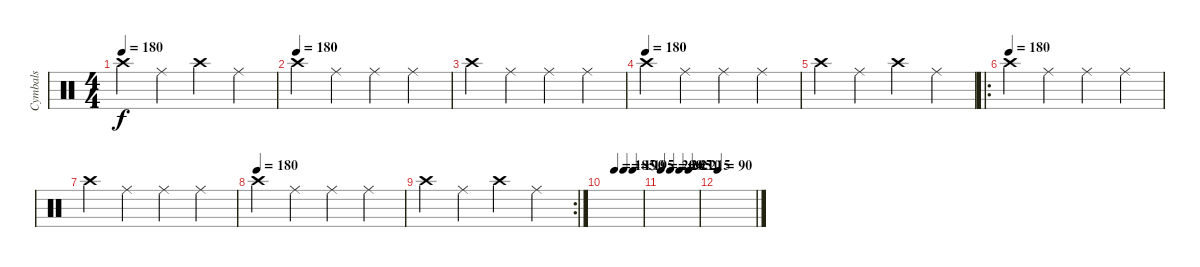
\track ("Cymbals" "Cymbals") {instrument percussion}
\staff {score}
\articulation defaults
\ts (4 4)
\tempo 180
\clef neutral
\ks c "Crash high (hit)".4{dy f} "Ride (middle)".4 "Crash high (hit)".4 "Ride (middle)".4
|
\tempo (180)
"Crash high (hit)".4 "Ride (middle)".4 "Ride (middle)".4 "Ride (middle)".4 |
"Crash high (hit)".4 "Ride (middle)".4 "Ride (middle)".4 "Ride (middle)".4 |
\tempo (180)
"Crash high (hit)".4 "Ride (middle)".4 "Ride (middle)".4 "Ride (middle)".4 |
"Crash high (hit)".4 "Ride (middle)".4 "Crash high (hit)".4 "Ride (middle)".4 |
\ro
\tempo (180)
"Crash high (hit)".4 "Ride (middle)".4 "Ride (middle)".4 "Ride (middle)".4 |
"Crash high (hit)".4 "Ride (middle)".4 "Ride (middle)".4 "Ride (middle)".4 |
\tempo (180)
"Crash high (hit)".4 "Ride (middle)".4 "Ride (middle)".4 "Ride (middle)".4 |
\rc 2 "Crash high (hit)".4 "Ride (middle)".4 "Crash high (hit)".4 "Ride (middle)".4
|
\tempo (185 0.25)
\tempo (190 0.5)
\tempo (195 0.75)
|
\tempo 200
\tempo (205 0.25)
\tempo (210 0.5)
\tempo (215 0.75)
|
\tempo 90
